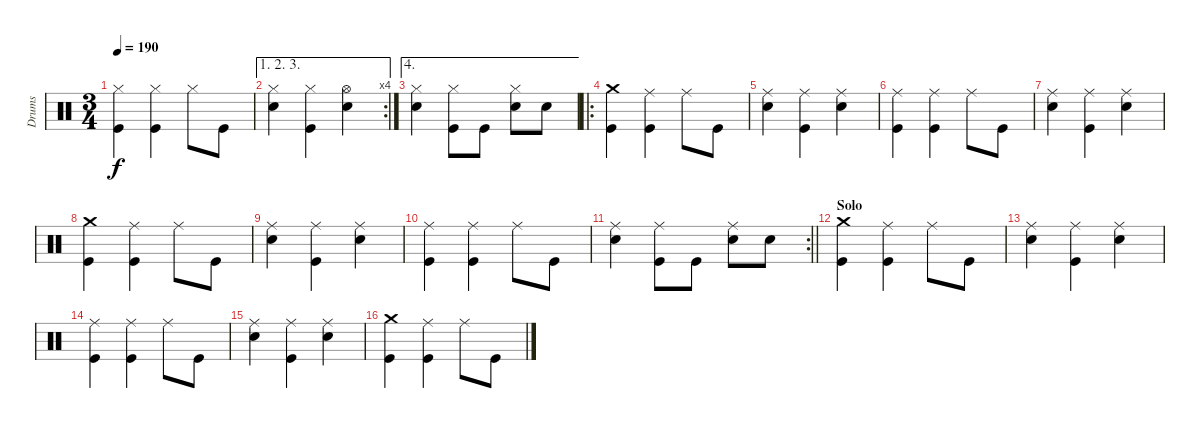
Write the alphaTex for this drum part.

\track ("Drums" "Drums") {instrument percussion bank 1}
\staff {score}
\articulation defaults
\ts (3 4)
\tempo 190
\clef neutral
\ks c
("Kick (hit)" "Hi-Hat (closed)").4{dy f} ("Kick (hit)" "Hi-Hat (closed)").4 "Hi-Hat (closed)".8 "Kick (hit)".8 |
\ae (1 2 3)
\rc 4
("Snare (hit) 2" "Hi-Hat (closed)").4 ("Kick (hit)" "Hi-Hat (closed)").4 ("Snare (hit) 2" "Hi-Hat (open)").4 |
\ae 4
("Snare (hit) 2" "Hi-Hat (closed)").4 ("Kick (hit)" "Hi-Hat (closed)").8 "Kick (hit)".8 ("Snare (hit) 2" "Hi-Hat (closed)").8 "Snare (hit) 2".8 |
\ro
("Kick (hit)" "Crash medium (hit)").4 ("Kick (hit)" "Ride (middle)").4 "Ride (middle)".8 "Kick (hit)".8 |
("Snare (hit) 2" "Ride (middle)").4 ("Kick (hit)" "Ride (middle)").4 ("Snare (hit) 2" "Ride (middle)").4 |
("Kick (hit)" "Ride (middle)").4 ("Kick (hit)" "Ride (middle)").4 "Ride (middle)".8 "Kick (hit)".8 |
("Snare (hit) 2" "Ride (middle)").4 ("Kick (hit)" "Ride (middle)").4 ("Snare (hit) 2" "Ride (middle)").4 |
("Kick (hit)" "Crash medium (hit)").4 ("Kick (hit)" "Ride (middle)").4 "Ride (middle)".8 "Kick (hit)".8 |
("Snare (hit) 2" "Ride (middle)").4 ("Kick (hit)" "Ride (middle)").4 ("Snare (hit) 2" "Ride (middle)").4 |
("Kick (hit)" "Ride (middle)").4 ("Kick (hit)" "Ride (middle)").4 "Ride (middle)".8 "Kick (hit)".8 |
\rc 2
\barLineRight lightlight
("Snare (hit) 2" "Ride (middle)").4 ("Kick (hit)" "Ride (middle)").8 "Kick (hit)".8 ("Snare (hit) 2" "Ride (middle)").8 "Snare (hit) 2".8 |
\section ("" "Solo")
("Kick (hit)" "Crash medium (hit)").4 ("Kick (hit)" "Ride (middle)").4 "Ride (middle)".8 "Kick (hit)".8 |
("Snare (hit) 2" "Ride (middle)").4 ("Kick (hit)" "Ride (middle)").4 ("Snare (hit) 2" "Ride (middle)").4 |
("Kick (hit)" "Ride (middle)").4 ("Kick (hit)" "Ride (middle)").4 "Ride (middle)".8 "Kick (hit)".8 |
("Snare (hit) 2" "Ride (middle)").4 ("Kick (hit)" "Ride (middle)").4 ("Snare (hit) 2" "Ride (middle)").4 |
("Kick (hit)" "Crash medium (hit)").4 ("Kick (hit)" "Ride (middle)").4 "Ride (middle)".8 "Kick (hit)".8
